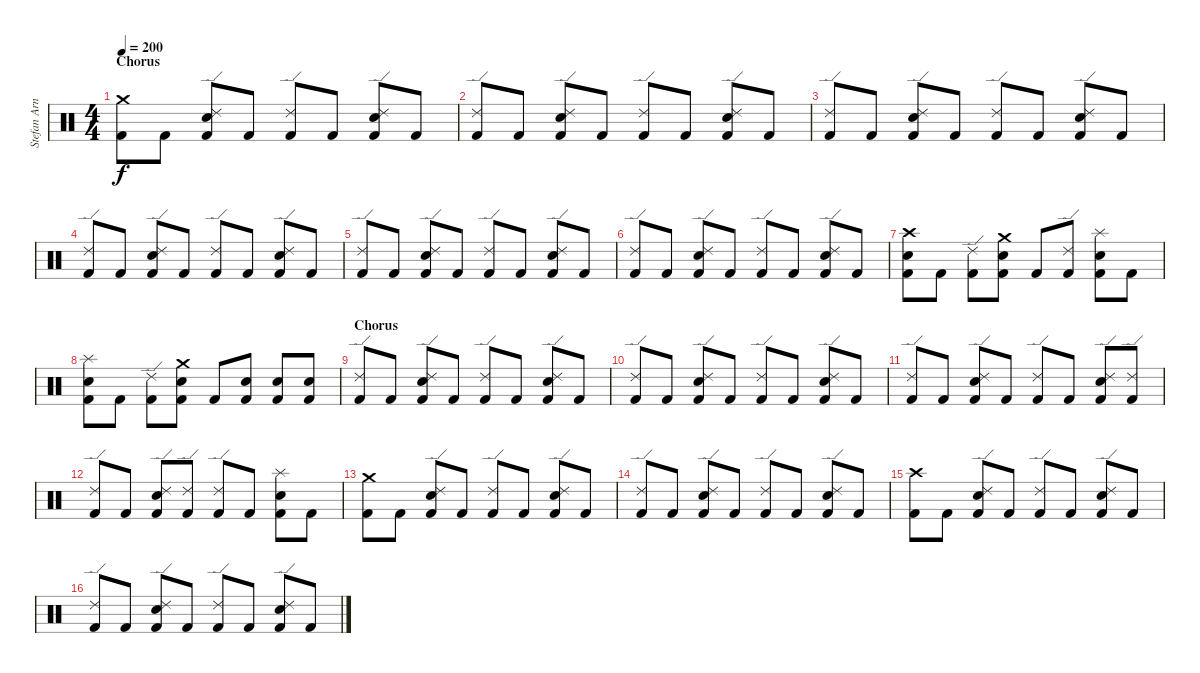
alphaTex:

\track ("Stefan Arnold" "Stefan Arn") {instrument percussion}
\staff {score}
\articulation defaults
\ts (4 4)
\section ("" "Chorus")
\tempo 200
\clef neutral
\ks c
("Crash medium (hit)" "Kick (hit) 2").8{dy f} "Kick (hit) 2".8 ("Ride (edge) 2" "Electric Snare (hit)" "Kick (hit) 2").8 "Kick (hit) 2".8 ("Ride (edge) 2" "Kick (hit) 2").8 "Kick (hit) 2".8 ("Ride (edge) 2" "Electric Snare (hit)" "Kick (hit) 2").8 "Kick (hit) 2".8 |
("Ride (edge) 2" "Kick (hit) 2").8 "Kick (hit) 2".8 ("Ride (edge) 2" "Electric Snare (hit)" "Kick (hit) 2").8 "Kick (hit) 2".8 ("Ride (edge) 2" "Kick (hit) 2").8 "Kick (hit) 2".8 ("Ride (edge) 2" "Electric Snare (hit)" "Kick (hit) 2").8 "Kick (hit) 2".8 |
("Ride (edge) 2" "Kick (hit) 2").8 "Kick (hit) 2".8 ("Ride (edge) 2" "Electric Snare (hit)" "Kick (hit) 2").8 "Kick (hit) 2".8 ("Ride (edge) 2" "Kick (hit) 2").8 "Kick (hit) 2".8 ("Ride (edge) 2" "Electric Snare (hit)" "Kick (hit) 2").8 "Kick (hit) 2".8 |
("Ride (edge) 2" "Kick (hit) 2").8 "Kick (hit) 2".8 ("Ride (edge) 2" "Electric Snare (hit)" "Kick (hit) 2").8 "Kick (hit) 2".8 ("Ride (edge) 2" "Kick (hit) 2").8 "Kick (hit) 2".8 ("Ride (edge) 2" "Electric Snare (hit)" "Kick (hit) 2").8 "Kick (hit) 2".8 |
("Ride (edge) 2" "Kick (hit) 2").8 "Kick (hit) 2".8 ("Ride (edge) 2" "Electric Snare (hit)" "Kick (hit) 2").8 "Kick (hit) 2".8 ("Ride (edge) 2" "Kick (hit) 2").8 "Kick (hit) 2".8 ("Ride (edge) 2" "Electric Snare (hit)" "Kick (hit) 2").8 "Kick (hit) 2".8 |
("Ride (edge) 2" "Kick (hit) 2").8 "Kick (hit) 2".8 ("Ride (edge) 2" "Electric Snare (hit)" "Kick (hit) 2").8 "Kick (hit) 2".8 ("Ride (edge) 2" "Kick (hit) 2").8 "Kick (hit) 2".8 ("Ride (edge) 2" "Electric Snare (hit)" "Kick (hit) 2").8 "Kick (hit) 2".8 |
("Crash high (hit)" "Electric Snare (hit)" "Kick (hit) 2").8 "Kick (hit) 2".8 ("Ride (edge) 2" "Kick (hit) 2").8 ("Crash medium (hit)" "Electric Snare (hit)" "Kick (hit) 2").8 "Kick (hit) 2".8 ("Ride (edge) 2" "Kick (hit) 2").8 ("Splash (hit)" "Electric Snare (hit)" "Kick (hit) 2").8 "Kick (hit) 2".8 |
("Splash (hit)" "Electric Snare (hit)" "Kick (hit) 2").8 "Kick (hit) 2".8 ("Ride (edge) 2" "Kick (hit) 2").8 ("Crash medium (hit)" "Electric Snare (hit)" "Kick (hit) 2").8 "Kick (hit) 2".8 ("Electric Snare (hit)" "Kick (hit) 2").8 ("Electric Snare (hit)" "Kick (hit) 2").8 ("Electric Snare (hit)" "Kick (hit) 2").8 |
\section ("" "Chorus")
("Ride (edge) 2" "Kick (hit) 2").8 "Kick (hit) 2".8 ("Ride (edge) 2" "Electric Snare (hit)" "Kick (hit) 2").8 "Kick (hit) 2".8 ("Ride (edge) 2" "Kick (hit) 2").8 "Kick (hit) 2".8 ("Ride (edge) 2" "Electric Snare (hit)" "Kick (hit) 2").8 "Kick (hit) 2".8 |
("Ride (edge) 2" "Kick (hit) 2").8 "Kick (hit) 2".8 ("Ride (edge) 2" "Electric Snare (hit)" "Kick (hit) 2").8 "Kick (hit) 2".8 ("Ride (edge) 2" "Kick (hit) 2").8 "Kick (hit) 2".8 ("Ride (edge) 2" "Electric Snare (hit)" "Kick (hit) 2").8 "Kick (hit) 2".8 |
("Ride (edge) 2" "Kick (hit) 2").8 "Kick (hit) 2".8 ("Ride (edge) 2" "Electric Snare (hit)" "Kick (hit) 2").8 "Kick (hit) 2".8 ("Ride (edge) 2" "Kick (hit) 2").8 "Kick (hit) 2".8 ("Ride (edge) 2" "Electric Snare (hit)" "Kick (hit) 2").8 ("Ride (edge) 2" "Kick (hit) 2").8 |
("Ride (edge) 2" "Kick (hit) 2").8 "Kick (hit) 2".8 ("Ride (edge) 2" "Electric Snare (hit)" "Kick (hit) 2").8 ("Ride (edge) 2" "Kick (hit) 2").8 ("Ride (edge) 2" "Kick (hit) 2").8 "Kick (hit) 2".8 ("Splash (hit)" "Electric Snare (hit)" "Kick (hit) 2").8 "Kick (hit) 2".8 |
("Crash medium (hit)" "Kick (hit) 2").8 "Kick (hit) 2".8 ("Ride (edge) 2" "Electric Snare (hit)" "Kick (hit) 2").8 "Kick (hit) 2".8 ("Ride (edge) 2" "Kick (hit) 2").8 "Kick (hit) 2".8 ("Ride (edge) 2" "Electric Snare (hit)" "Kick (hit) 2").8 "Kick (hit) 2".8 |
("Ride (edge) 2" "Kick (hit) 2").8 "Kick (hit) 2".8 ("Ride (edge) 2" "Electric Snare (hit)" "Kick (hit) 2").8 "Kick (hit) 2".8 ("Ride (edge) 2" "Kick (hit) 2").8 "Kick (hit) 2".8 ("Ride (edge) 2" "Electric Snare (hit)" "Kick (hit) 2").8 "Kick (hit) 2".8 |
("Crash high (hit)" "Kick (hit) 2").8 "Kick (hit) 2".8 ("Ride (edge) 2" "Electric Snare (hit)" "Kick (hit) 2").8 "Kick (hit) 2".8 ("Ride (edge) 2" "Kick (hit) 2").8 "Kick (hit) 2".8 ("Ride (edge) 2" "Electric Snare (hit)" "Kick (hit) 2").8 "Kick (hit) 2".8 |
("Ride (edge) 2" "Kick (hit) 2").8 "Kick (hit) 2".8 ("Ride (edge) 2" "Electric Snare (hit)" "Kick (hit) 2").8 "Kick (hit) 2".8 ("Ride (edge) 2" "Kick (hit) 2").8 "Kick (hit) 2".8 ("Ride (edge) 2" "Electric Snare (hit)" "Kick (hit) 2").8 "Kick (hit) 2".8
